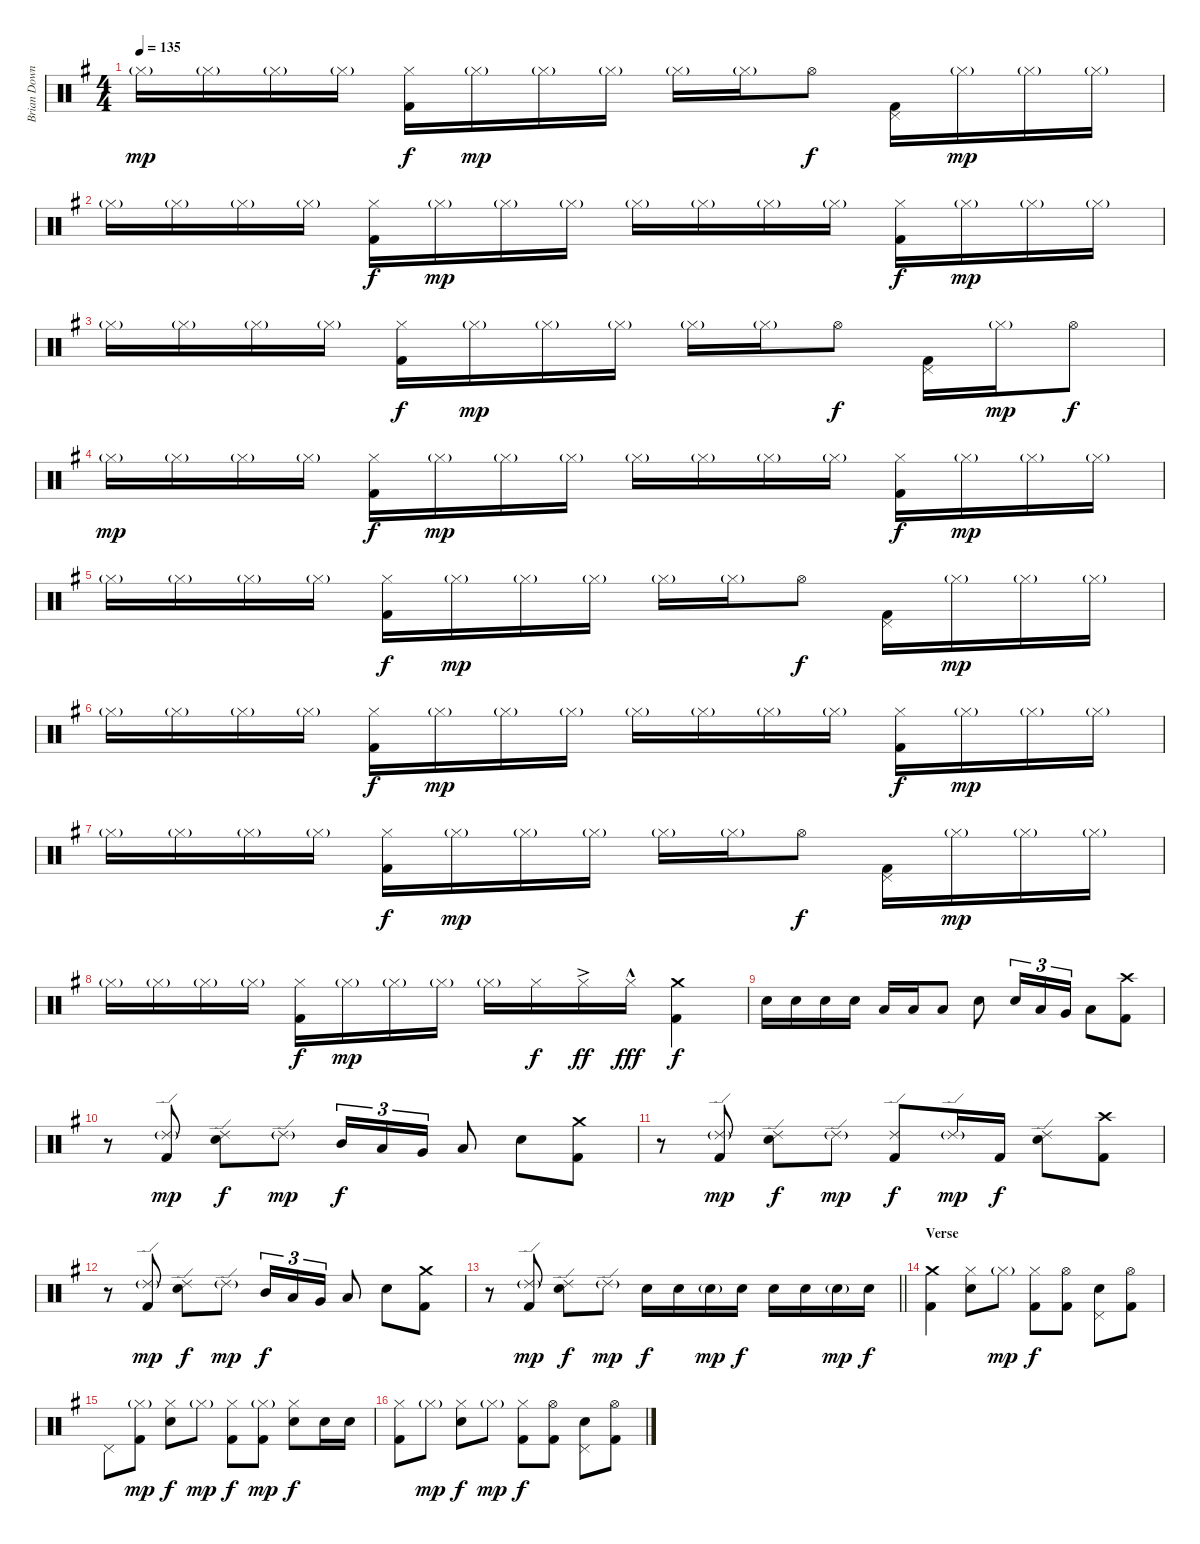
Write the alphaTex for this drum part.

\track ("Brian Downey" "Brian Down") {instrument percussion}
\staff {score}
\articulation defaults
\ts (4 4)
\tempo 135
\clef neutral
\ks eminor "Hi-Hat (closed)"{g}.16{dy mp} "Hi-Hat (closed)"{g}.16 "Hi-Hat (closed)"{g}.16 "Hi-Hat (closed)"{g}.16
("Hi-Hat (closed)" "Kick (hit) 2").16{dy f} "Hi-Hat (closed)"{g}.16{dy mp} "Hi-Hat (closed)"{g}.16 "Hi-Hat (closed)"{g}.16 "Hi-Hat (closed)"{g}.16 "Hi-Hat (closed)"{g}.16 "Hi-Hat (open)".8{dy f} ("Pedal Hi-Hat (hit)" "Kick (hit) 2").16 "Hi-Hat (closed)"{g}.16{dy mp} "Hi-Hat (closed)"{g}.16 "Hi-Hat (closed)"{g}.16 |
"Hi-Hat (closed)"{g}.16 "Hi-Hat (closed)"{g}.16 "Hi-Hat (closed)"{g}.16 "Hi-Hat (closed)"{g}.16 ("Hi-Hat (closed)" "Kick (hit) 2").16{dy f} "Hi-Hat (closed)"{g}.16{dy mp} "Hi-Hat (closed)"{g}.16 "Hi-Hat (closed)"{g}.16 "Hi-Hat (closed)"{g}.16 "Hi-Hat (closed)"{g}.16 "Hi-Hat (closed)"{g}.16 "Hi-Hat (closed)"{g}.16 ("Hi-Hat (closed)" "Kick (hit) 2").16{dy f} "Hi-Hat (closed)"{g}.16{dy mp} "Hi-Hat (closed)"{g}.16 "Hi-Hat (closed)"{g}.16 |
"Hi-Hat (closed)"{g}.16 "Hi-Hat (closed)"{g}.16 "Hi-Hat (closed)"{g}.16 "Hi-Hat (closed)"{g}.16 ("Hi-Hat (closed)" "Kick (hit) 2").16{dy f} "Hi-Hat (closed)"{g}.16{dy mp} "Hi-Hat (closed)"{g}.16 "Hi-Hat (closed)"{g}.16 "Hi-Hat (closed)"{g}.16 "Hi-Hat (closed)"{g}.16 "Hi-Hat (open)".8{dy f} ("Pedal Hi-Hat (hit)" "Kick (hit) 2").16 "Hi-Hat (closed)"{g}.16{dy mp} "Hi-Hat (open)".8{dy f} |
"Hi-Hat (closed)"{g}.16{dy mp} "Hi-Hat (closed)"{g}.16 "Hi-Hat (closed)"{g}.16 "Hi-Hat (closed)"{g}.16 ("Hi-Hat (closed)" "Kick (hit) 2").16{dy f} "Hi-Hat (closed)"{g}.16{dy mp} "Hi-Hat (closed)"{g}.16 "Hi-Hat (closed)"{g}.16 "Hi-Hat (closed)"{g}.16 "Hi-Hat (closed)"{g}.16 "Hi-Hat (closed)"{g}.16 "Hi-Hat (closed)"{g}.16 ("Hi-Hat (closed)" "Kick (hit) 2").16{dy f} "Hi-Hat (closed)"{g}.16{dy mp} "Hi-Hat (closed)"{g}.16 "Hi-Hat (closed)"{g}.16 |
"Hi-Hat (closed)"{g}.16 "Hi-Hat (closed)"{g}.16 "Hi-Hat (closed)"{g}.16 "Hi-Hat (closed)"{g}.16 ("Hi-Hat (closed)" "Kick (hit) 2").16{dy f} "Hi-Hat (closed)"{g}.16{dy mp} "Hi-Hat (closed)"{g}.16 "Hi-Hat (closed)"{g}.16 "Hi-Hat (closed)"{g}.16 "Hi-Hat (closed)"{g}.16 "Hi-Hat (open)".8{dy f} ("Pedal Hi-Hat (hit)" "Kick (hit) 2").16 "Hi-Hat (closed)"{g}.16{dy mp} "Hi-Hat (closed)"{g}.16 "Hi-Hat (closed)"{g}.16 |
"Hi-Hat (closed)"{g}.16 "Hi-Hat (closed)"{g}.16 "Hi-Hat (closed)"{g}.16 "Hi-Hat (closed)"{g}.16 ("Hi-Hat (closed)" "Kick (hit) 2").16{dy f} "Hi-Hat (closed)"{g}.16{dy mp} "Hi-Hat (closed)"{g}.16 "Hi-Hat (closed)"{g}.16 "Hi-Hat (closed)"{g}.16 "Hi-Hat (closed)"{g}.16 "Hi-Hat (closed)"{g}.16 "Hi-Hat (closed)"{g}.16 ("Hi-Hat (closed)" "Kick (hit) 2").16{dy f} "Hi-Hat (closed)"{g}.16{dy mp} "Hi-Hat (closed)"{g}.16 "Hi-Hat (closed)"{g}.16 |
"Hi-Hat (closed)"{g}.16 "Hi-Hat (closed)"{g}.16 "Hi-Hat (closed)"{g}.16 "Hi-Hat (closed)"{g}.16 ("Hi-Hat (closed)" "Kick (hit) 2").16{dy f} "Hi-Hat (closed)"{g}.16{dy mp} "Hi-Hat (closed)"{g}.16 "Hi-Hat (closed)"{g}.16 "Hi-Hat (closed)"{g}.16 "Hi-Hat (closed)"{g}.16 "Hi-Hat (open)".8{dy f} ("Pedal Hi-Hat (hit)" "Kick (hit) 2").16 "Hi-Hat (closed)"{g}.16{dy mp} "Hi-Hat (closed)"{g}.16 "Hi-Hat (closed)"{g}.16 |
"Hi-Hat (closed)"{g}.16 "Hi-Hat (closed)"{g}.16 "Hi-Hat (closed)"{g}.16 "Hi-Hat (closed)"{g}.16 ("Hi-Hat (closed)" "Kick (hit) 2").16{dy f} "Hi-Hat (closed)"{g}.16{dy mp} "Hi-Hat (closed)"{g}.16 "Hi-Hat (closed)"{g}.16 "Hi-Hat (closed)"{g}.16 "Hi-Hat (closed)".16{dy f} "Hi-Hat (closed)"{ac}.16{dy ff} "Hi-Hat (closed)"{hac}.16{dy fff} ("Crash medium (hit)" "Kick (hit) 2").4{dy f} |
"Electric Snare (hit)".16 "Electric Snare (hit)".16 "Electric Snare (hit)".16 "Electric Snare (hit)".16 "Low Tom (hit)".16 "Low Tom (hit)".16 "Low Tom (hit)".8 "Electric Snare (hit)".8 "Electric Snare (hit)".16{tu (3 2)} "Low Tom (hit)".16{tu (3 2)} "Very Low Tom (hit)".16{tu (3 2)} "Low Floor Tom (hit)".8 ("Crash high (hit)" "Kick (hit) 2").8 |
r.8 ("Ride (edge) 2"{g} "Kick (hit) 2").8{dy mp} ("Ride (edge) 2" "Electric Snare (hit)").8{dy f} "Ride (edge) 2"{g}.8{dy mp} "Mid Tom (hit)".16{tu (3 2) dy f} "Low Tom (hit)".16{tu (3 2)} "Very Low Tom (hit)".16{tu (3 2)} "Low Floor Tom (hit)".8 "Electric Snare (hit)".8 ("Crash medium (hit)" "Kick (hit) 2").8 |
r.8 ("Ride (edge) 2"{g} "Kick (hit) 2").8{dy mp} ("Ride (edge) 2" "Electric Snare (hit)").8{dy f} "Ride (edge) 2"{g}.8{dy mp} ("Ride (edge) 2" "Kick (hit) 2").8{dy f} "Ride (edge) 2"{g}.16{dy mp} "Kick (hit) 2".16{dy f} ("Ride (edge) 2" "Electric Snare (hit)").8 ("Crash high (hit)" "Kick (hit) 2").8 |
r.8 ("Ride (edge) 2"{g} "Kick (hit) 2").8{dy mp} ("Ride (edge) 2" "Electric Snare (hit)").8{dy f} "Ride (edge) 2"{g}.8{dy mp} "Mid Tom (hit)".16{tu (3 2) dy f} "Low Tom (hit)".16{tu (3 2)} "Very Low Tom (hit)".16{tu (3 2)} "Low Floor Tom (hit)".8 "Electric Snare (hit)".8 ("Crash medium (hit)" "Kick (hit) 2").8 |
\barLineRight lightlight
r.8 ("Ride (edge) 2"{g} "Kick (hit) 2").8{dy mp} ("Ride (edge) 2" "Electric Snare (hit)").8{dy f} "Ride (edge) 2"{g}.8{dy mp} "Electric Snare (hit)".16{dy f} "Electric Snare (hit)".16 "Electric Snare (hit)"{g}.16{dy mp} "Electric Snare (hit)".16{dy f} "Electric Snare (hit)".16 "Electric Snare (hit)".16 "Electric Snare (hit)"{g}.16{dy mp} "Electric Snare (hit)".16{dy f} |
\section ("" "Verse")
("Crash medium (hit)" "Kick (hit) 2").4 ("Hi-Hat (closed)" "Electric Snare (hit)").8 "Hi-Hat (closed)"{g}.8{dy mp} ("Hi-Hat (closed)" "Kick (hit) 2").8{dy f} ("Hi-Hat (open)" "Kick (hit) 2").8 ("Pedal Hi-Hat (hit)" "Electric Snare (hit)").8 ("Hi-Hat (open)" "Kick (hit) 2").8 |
"Pedal Hi-Hat (hit)".8 ("Hi-Hat (closed)"{g} "Kick (hit) 2").8{dy mp} ("Hi-Hat (closed)" "Electric Snare (hit)").8{dy f} "Hi-Hat (closed)"{g}.8{dy mp} ("Hi-Hat (closed)" "Kick (hit) 2").8{dy f} ("Hi-Hat (closed)"{g} "Kick (hit) 2").8{dy mp} ("Hi-Hat (closed)" "Electric Snare (hit)").8{dy f} "Electric Snare (hit)".16 "Electric Snare (hit)".16 |
("Hi-Hat (closed)" "Kick (hit) 2").8 "Hi-Hat (closed)"{g}.8{dy mp} ("Hi-Hat (closed)" "Electric Snare (hit)").8{dy f} "Hi-Hat (closed)"{g}.8{dy mp} ("Hi-Hat (closed)" "Kick (hit) 2").8{dy f} ("Hi-Hat (open)" "Kick (hit) 2").8 ("Pedal Hi-Hat (hit)" "Electric Snare (hit)").8 ("Hi-Hat (open)" "Kick (hit) 2").8
